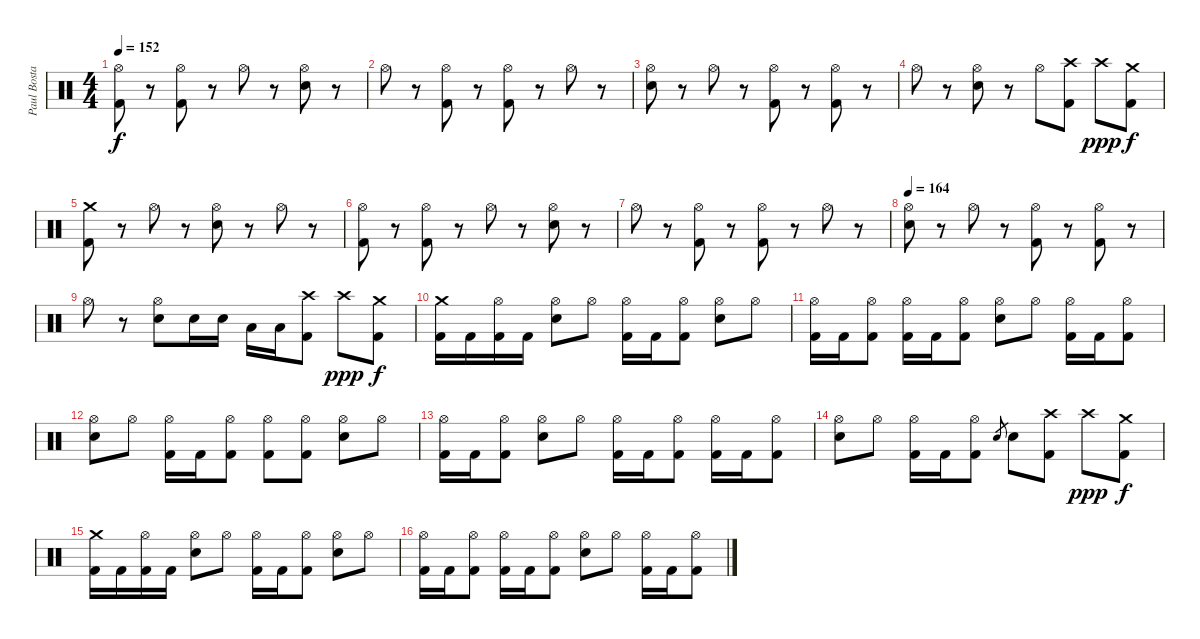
\track ("Paul Bostaph" "Paul Bosta") {instrument percussion}
\staff {score}
\articulation defaults
\ts (4 4)
\tempo 152
\clef neutral
\ks c
("Kick (hit) 2" "Hi-Hat (open)").8{dy f} r.8 ("Kick (hit) 2" "Hi-Hat (open)").8 r.8 "Hi-Hat (open)".8 r.8 ("Electric Snare (hit)" "Hi-Hat (open)").8 r.8 |
"Hi-Hat (open)".8 r.8 ("Kick (hit) 2" "Hi-Hat (open)").8 r.8 ("Kick (hit) 2" "Hi-Hat (open)").8 r.8 "Hi-Hat (open)".8 r.8 |
("Electric Snare (hit)" "Hi-Hat (open)").8 r.8 "Hi-Hat (open)".8 r.8 ("Kick (hit) 2" "Hi-Hat (open)").8 r.8 ("Kick (hit) 2" "Hi-Hat (open)").8 r.8 |
"Hi-Hat (open)".8 r.8 ("Electric Snare (hit)" "Hi-Hat (open)").8 r.8 "Hi-Hat (open)".8 ("Kick (hit) 2" "Crash high (hit)").8 "Crash high (hit)".8{dy ppp} ("Kick (hit) 2" "Crash medium (hit)").8{dy f} |
("Kick (hit) 2" "Crash medium (hit)").8 r.8 "Hi-Hat (open)".8 r.8 ("Electric Snare (hit)" "Hi-Hat (open)").8 r.8 "Hi-Hat (open)".8 r.8 |
("Kick (hit) 2" "Hi-Hat (open)").8 r.8 ("Kick (hit) 2" "Hi-Hat (open)").8 r.8 "Hi-Hat (open)".8 r.8 ("Electric Snare (hit)" "Hi-Hat (open)").8 r.8 |
"Hi-Hat (open)".8 r.8 ("Kick (hit) 2" "Hi-Hat (open)").8 r.8 ("Kick (hit) 2" "Hi-Hat (open)").8 r.8 "Hi-Hat (open)".8 r.8 |
\tempo 164
("Electric Snare (hit)" "Hi-Hat (open)").8 r.8 "Hi-Hat (open)".8 r.8 ("Kick (hit) 2" "Hi-Hat (open)").8 r.8 ("Kick (hit) 2" "Hi-Hat (open)").8 r.8 |
"Hi-Hat (open)".8 r.8 ("Electric Snare (hit)" "Hi-Hat (open)").8 "Electric Snare (hit)".16 "Electric Snare (hit)".16 "Low Tom (hit)".16 "Low Tom (hit)".16 ("Kick (hit) 2" "Crash high (hit)").8 "Crash high (hit)".8{dy ppp} ("Kick (hit) 2" "Crash medium (hit)").8{dy f} |
("Kick (hit) 2" "Crash medium (hit)").16 "Kick (hit) 2".16 ("Kick (hit) 2" "Hi-Hat (open)").16 "Kick (hit) 2".16 ("Electric Snare (hit)" "Hi-Hat (open)").8 "Hi-Hat (open)".8 ("Kick (hit) 2" "Hi-Hat (open)").16 "Kick (hit) 2".16 ("Kick (hit) 2" "Hi-Hat (open)").8 ("Electric Snare (hit)" "Hi-Hat (open)").8 "Hi-Hat (open)".8 |
("Kick (hit) 2" "Hi-Hat (open)").16 "Kick (hit) 2".16 ("Kick (hit) 2" "Hi-Hat (open)").8 ("Kick (hit) 2" "Hi-Hat (open)").16 "Kick (hit) 2".16 ("Kick (hit) 2" "Hi-Hat (open)").8 ("Electric Snare (hit)" "Hi-Hat (open)").8 "Hi-Hat (open)".8 ("Kick (hit) 2" "Hi-Hat (open)").16 "Kick (hit) 2".16 ("Kick (hit) 2" "Hi-Hat (open)").8 |
("Electric Snare (hit)" "Hi-Hat (open)").8 "Hi-Hat (open)".8 ("Kick (hit) 2" "Hi-Hat (open)").16 "Kick (hit) 2".16 ("Kick (hit) 2" "Hi-Hat (open)").8 ("Kick (hit) 2" "Hi-Hat (open)").8 ("Kick (hit) 2" "Hi-Hat (open)").8 ("Electric Snare (hit)" "Hi-Hat (open)").8 "Hi-Hat (open)".8 |
("Hi-Hat (open)" "Kick (hit) 2").16 "Kick (hit) 2".16 ("Hi-Hat (open)" "Kick (hit) 2").8 ("Hi-Hat (open)" "Electric Snare (hit)").8 "Hi-Hat (open)".8 ("Hi-Hat (open)" "Kick (hit) 2").16 "Kick (hit) 2".16 ("Hi-Hat (open)" "Kick (hit) 2").8 ("Hi-Hat (open)" "Kick (hit) 2").16 "Kick (hit) 2".16 ("Hi-Hat (open)" "Kick (hit) 2").8 |
("Electric Snare (hit)" "Hi-Hat (open)").8 "Hi-Hat (open)".8 ("Kick (hit) 2" "Hi-Hat (open)").16 "Kick (hit) 2".16 ("Kick (hit) 2" "Hi-Hat (open)").8 "Electric Snare (hit)".8{gr} "Electric Snare (hit)".8 ("Crash high (hit)" "Kick (hit) 2").8 "Crash high (hit)".8{dy ppp} ("Crash medium (hit)" "Kick (hit) 2").8{dy f} |
("Kick (hit) 2" "Crash medium (hit)").16 "Kick (hit) 2".16 ("Kick (hit) 2" "Hi-Hat (open)").16 "Kick (hit) 2".16 ("Electric Snare (hit)" "Hi-Hat (open)").8 "Hi-Hat (open)".8 ("Kick (hit) 2" "Hi-Hat (open)").16 "Kick (hit) 2".16 ("Kick (hit) 2" "Hi-Hat (open)").8 ("Electric Snare (hit)" "Hi-Hat (open)").8 "Hi-Hat (open)".8 |
("Kick (hit) 2" "Hi-Hat (open)").16 "Kick (hit) 2".16 ("Kick (hit) 2" "Hi-Hat (open)").8 ("Kick (hit) 2" "Hi-Hat (open)").16 "Kick (hit) 2".16 ("Kick (hit) 2" "Hi-Hat (open)").8 ("Electric Snare (hit)" "Hi-Hat (open)").8 "Hi-Hat (open)".8 ("Kick (hit) 2" "Hi-Hat (open)").16 "Kick (hit) 2".16 ("Kick (hit) 2" "Hi-Hat (open)").8
